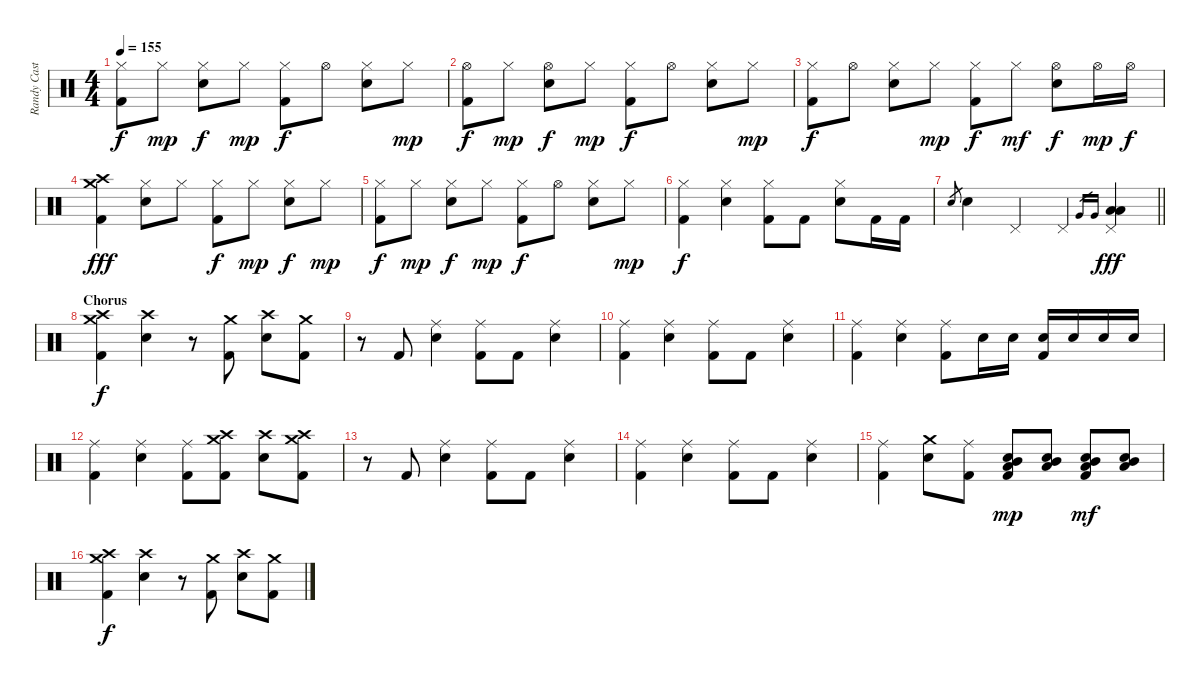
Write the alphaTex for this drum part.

\track ("Randy Castillo - Drums" "Randy Cast") {instrument percussion}
\staff {score}
\articulation defaults
\ts (4 4)
\tempo 155
\clef neutral
\ks c
("Hi-Hat (closed)" "Kick (hit) 2").8{dy f} "Hi-Hat (closed)".8{dy mp} ("Hi-Hat (closed)" "Snare (hit) 2").8{dy f} "Hi-Hat (closed)".8{dy mp} ("Hi-Hat (closed)" "Kick (hit) 2").8{dy f} "Hi-Hat (open)".8 ("Hi-Hat (closed)" "Snare (hit) 2").8 "Hi-Hat (closed)".8{dy mp} |
("Hi-Hat (open)" "Kick (hit) 2").8{dy f} "Hi-Hat (closed)".8{dy mp} ("Hi-Hat (open)" "Snare (hit) 2").8{dy f} "Hi-Hat (closed)".8{dy mp} ("Hi-Hat (closed)" "Kick (hit) 2").8{dy f} "Hi-Hat (open)".8 ("Hi-Hat (closed)" "Snare (hit) 2").8 "Hi-Hat (closed)".8{dy mp} |
("Hi-Hat (closed)" "Kick (hit) 2").8{dy f} "Hi-Hat (open)".8 ("Hi-Hat (closed)" "Snare (hit) 2").8 "Hi-Hat (closed)".8{dy mp} ("Hi-Hat (closed)" "Kick (hit) 2").8{dy f} "Hi-Hat (closed)".8{dy mf} ("Hi-Hat (open)" "Snare (hit) 2").8{dy f} "Hi-Hat (open)".16{dy mp} "Hi-Hat (open)".16{dy f} |
("Crash medium (hit)" "Crash high (hit)" "Kick (hit) 2").4{dy fff} ("Hi-Hat (closed)" "Snare (hit) 2").8 "Hi-Hat (closed)".8 ("Hi-Hat (closed)" "Kick (hit) 2").8{dy f} "Hi-Hat (closed)".8{dy mp} ("Hi-Hat (closed)" "Snare (hit) 2").8{dy f} "Hi-Hat (closed)".8{dy mp} |
("Hi-Hat (closed)" "Kick (hit) 2").8{dy f} "Hi-Hat (closed)".8{dy mp} ("Hi-Hat (closed)" "Snare (hit) 2").8{dy f} "Hi-Hat (closed)".8{dy mp} ("Hi-Hat (closed)" "Kick (hit) 2").8{dy f} "Hi-Hat (open)".8 ("Hi-Hat (closed)" "Snare (hit) 2").8 "Hi-Hat (closed)".8{dy mp} |
("Hi-Hat (closed)" "Kick (hit) 2").4{dy f} ("Hi-Hat (closed)" "Snare (hit) 2").4 ("Hi-Hat (closed)" "Kick (hit) 2").8 "Kick (hit) 2".8 ("Hi-Hat (closed)" "Snare (hit) 2").8 "Kick (hit) 2".16 "Kick (hit) 2".16 |
\barLineRight lightlight "Snare (hit) 2".8{gr} "Snare (hit) 2".4 "Pedal Hi-Hat (hit)".4 "Pedal Hi-Hat (hit)".4 "Very Low Tom (hit)".16{gr} "Very Low Tom (hit)".16{gr}
("Low Tom (hit)" "Low Tom (hit)" "Pedal Hi-Hat (hit)").4{dy fff} |
\section ("" "Chorus")
("Crash medium (hit)" "Crash high (hit)" "Kick (hit) 2").4{dy f} ("Crash high (hit)" "Snare (hit) 2").4 r.8 ("Crash medium (hit)" "Kick (hit) 2").8 ("Crash high (hit)" "Snare (hit) 2").8 ("Crash medium (hit)" "Kick (hit) 2").8 |
r.8 "Kick (hit) 2".8 ("Ride (middle)" "Snare (hit) 2").4 ("Ride (middle)" "Kick (hit) 2").8 "Kick (hit) 2".8 ("Ride (middle)" "Snare (hit) 2").4 |
("Ride (middle)" "Kick (hit) 2").4 ("Ride (middle)" "Snare (hit) 2").4 ("Ride (middle)" "Kick (hit) 2").8 "Kick (hit) 2".8 ("Ride (middle)" "Snare (hit) 2").4 |
("Ride (middle)" "Kick (hit) 2").4 ("Ride (middle)" "Snare (hit) 2").4 ("Ride (middle)" "Kick (hit) 2").8 "Snare (hit) 2".16 "Snare (hit) 2".16 ("Snare (hit) 2" "Kick (hit) 2").16 "Snare (hit) 2".16 "Snare (hit) 2".16 "Snare (hit) 2".16 |
("Ride (middle)" "Kick (hit) 2").4 ("Ride (middle)" "Snare (hit) 2").4 ("Ride (middle)" "Kick (hit) 2").8 ("Crash medium (hit)" "Crash high (hit)" "Kick (hit) 2").8 ("Crash high (hit)" "Snare (hit) 2").8 ("Crash medium (hit)" "Crash high (hit)" "Kick (hit) 2").8 |
r.8 "Kick (hit) 2".8 ("Ride (middle)" "Snare (hit) 2").4 ("Ride (middle)" "Kick (hit) 2").8 "Kick (hit) 2".8 ("Ride (middle)" "Snare (hit) 2").4 |
("Ride (middle)" "Kick (hit) 2").4 ("Ride (middle)" "Snare (hit) 2").4 ("Ride (middle)" "Kick (hit) 2").8 "Kick (hit) 2".8 ("Ride (middle)" "Snare (hit) 2").4 |
("Ride (middle)" "Kick (hit) 2").4 ("Crash medium (hit)" "Snare (hit) 2").8 ("Ride (middle)" "Kick (hit) 2").8 ("Mid Tom (hit)" "Low Tom (hit)" "Snare (hit) 2" "Kick (hit) 2").8{dy mp} ("Mid Tom (hit)" "Low Tom (hit)" "Snare (hit) 2").8 ("Mid Tom (hit)" "Low Tom (hit)" "Snare (hit) 2" "Kick (hit) 2").8{dy mf} ("Mid Tom (hit)" "Low Tom (hit)" "Snare (hit) 2").8 |
("Crash medium (hit)" "Crash high (hit)" "Kick (hit) 2").4{dy f} ("Crash high (hit)" "Snare (hit) 2").4 r.8 ("Crash medium (hit)" "Kick (hit) 2").8 ("Crash high (hit)" "Snare (hit) 2").8 ("Crash medium (hit)" "Kick (hit) 2").8
